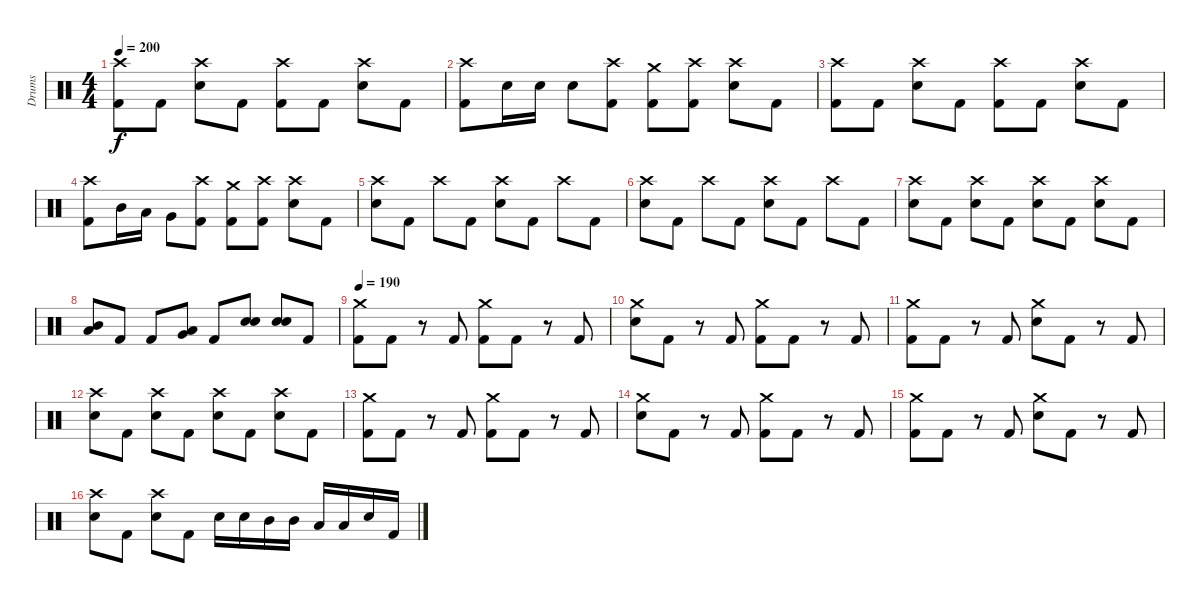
\track ("Drums" "Drums") {instrument percussion}
\staff {score}
\articulation defaults
\ts (4 4)
\tempo 200
\clef neutral
\ks c
("Crash high (hit)" "Kick (hit) 2").8{dy f} "Kick (hit) 2".8 ("Crash high (hit)" "Electric Snare (hit)").8 "Kick (hit) 2".8 ("Crash high (hit)" "Kick (hit) 2").8 "Kick (hit) 2".8 ("Crash high (hit)" "Electric Snare (hit)").8 "Kick (hit) 2".8 |
("Crash high (hit)" "Kick (hit) 2").8 "Electric Snare (hit)".16 "Electric Snare (hit)".16 "Electric Snare (hit)".8 ("Crash high (hit)" "Kick (hit) 2").8 ("Crash medium (hit)" "Kick (hit) 2").8 ("Crash high (hit)" "Kick (hit) 2").8 ("Crash high (hit)" "Electric Snare (hit)").8 "Kick (hit) 2".8 |
("Crash high (hit)" "Kick (hit) 2").8 "Kick (hit) 2".8 ("Crash high (hit)" "Electric Snare (hit)").8 "Kick (hit) 2".8 ("Crash high (hit)" "Kick (hit) 2").8 "Kick (hit) 2".8 ("Crash high (hit)" "Electric Snare (hit)").8 "Kick (hit) 2".8 |
("Crash high (hit)" "Kick (hit) 2").8 "Mid Tom (hit)".16 "Low Tom (hit)".16 "Very Low Tom (hit)".8 ("Crash high (hit)" "Kick (hit) 2").8 ("Crash medium (hit)" "Kick (hit) 2").8 ("Crash high (hit)" "Kick (hit) 2").8 ("Crash high (hit)" "Electric Snare (hit)").8 "Kick (hit) 2".8 |
("Crash high (hit)" "Electric Snare (hit)").8 "Kick (hit) 2".8 "Crash high (hit)".8 "Kick (hit) 2".8 ("Crash high (hit)" "Electric Snare (hit)").8 "Kick (hit) 2".8 "Crash high (hit)".8 "Kick (hit) 2".8 |
("Crash high (hit)" "Electric Snare (hit)").8 "Kick (hit) 2".8 "Crash high (hit)".8 "Kick (hit) 2".8 ("Crash high (hit)" "Electric Snare (hit)").8 "Kick (hit) 2".8 "Crash high (hit)".8 "Kick (hit) 2".8 |
("Crash high (hit)" "Electric Snare (hit)").8 "Kick (hit) 2".8 ("Crash high (hit)" "Electric Snare (hit)").8 "Kick (hit) 2".8 ("Crash high (hit)" "Electric Snare (hit)").8 "Kick (hit) 2".8 ("Crash high (hit)" "Electric Snare (hit)").8 "Kick (hit) 2".8 |
("Mid Tom (hit)" "Low Tom (hit)").8 "Kick (hit) 2".8 "Kick (hit) 2".8 ("Low Tom (hit)" "Very Low Tom (hit)").8 "Kick (hit) 2".8 ("Electric Snare (hit)" "Electric Snare (hit)").8 ("Electric Snare (hit)" "Electric Snare (hit)").8 "Kick (hit) 2".8 |
\tempo 190
("Crash medium (hit)" "Kick (hit) 2").8 "Kick (hit) 2".8 r.8 "Kick (hit) 2".8 ("Crash medium (hit)" "Kick (hit) 2").8 "Kick (hit) 2".8 r.8 "Kick (hit) 2".8 |
("Crash medium (hit)" "Electric Snare (hit)").8 "Kick (hit) 2".8 r.8 "Kick (hit) 2".8 ("Crash medium (hit)" "Kick (hit) 2").8 "Kick (hit) 2".8 r.8 "Kick (hit) 2".8 |
("Crash medium (hit)" "Kick (hit) 2").8 "Kick (hit) 2".8 r.8 "Kick (hit) 2".8 ("Crash medium (hit)" "Electric Snare (hit)").8 "Kick (hit) 2".8 r.8 "Kick (hit) 2".8 |
("Crash high (hit)" "Electric Snare (hit)").8 "Kick (hit) 2".8 ("Crash high (hit)" "Electric Snare (hit)").8 "Kick (hit) 2".8 ("Crash high (hit)" "Electric Snare (hit)").8 "Kick (hit) 2".8 ("Crash high (hit)" "Electric Snare (hit)").8 "Kick (hit) 2".8 |
("Crash medium (hit)" "Kick (hit) 2").8 "Kick (hit) 2".8 r.8 "Kick (hit) 2".8 ("Crash medium (hit)" "Kick (hit) 2").8 "Kick (hit) 2".8 r.8 "Kick (hit) 2".8 |
("Crash medium (hit)" "Electric Snare (hit)").8 "Kick (hit) 2".8 r.8 "Kick (hit) 2".8 ("Crash medium (hit)" "Kick (hit) 2").8 "Kick (hit) 2".8 r.8 "Kick (hit) 2".8 |
("Crash medium (hit)" "Kick (hit) 2").8 "Kick (hit) 2".8 r.8 "Kick (hit) 2".8 ("Crash medium (hit)" "Electric Snare (hit)").8 "Kick (hit) 2".8 r.8 "Kick (hit) 2".8 |
("Crash high (hit)" "Electric Snare (hit)").8 "Kick (hit) 2".8 ("Crash high (hit)" "Electric Snare (hit)").8 "Kick (hit) 2".8 "Electric Snare (hit)".16 "Electric Snare (hit)".16 "Mid Tom (hit)".16 "Mid Tom (hit)".16 "Low Tom (hit)".16 "Low Tom (hit)".16 "Electric Snare (hit)".16 "Kick (hit) 2".16
